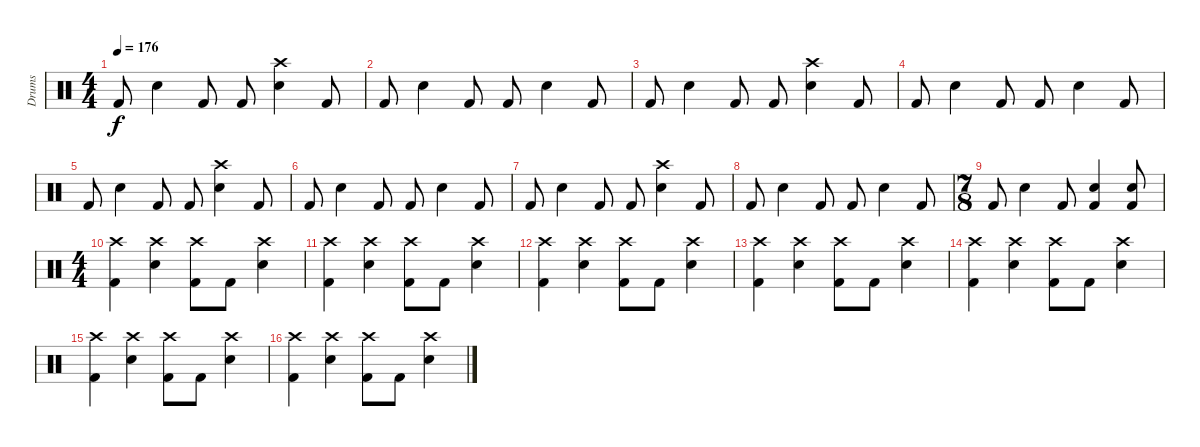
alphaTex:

\track ("Drums" "Drums") {instrument percussion}
\staff {score}
\articulation defaults
\ts (4 4)
\tempo 176
\clef neutral
\ks c "Kick (hit) 2".8{dy f} "Snare (hit) 2".4 "Kick (hit) 2".8 "Kick (hit) 2".8
("Snare (hit) 2" "Crash high (hit)").4 "Kick (hit) 2".8 |
"Kick (hit) 2".8 "Snare (hit) 2".4 "Kick (hit) 2".8 "Kick (hit) 2".8 "Snare (hit) 2".4 "Kick (hit) 2".8 |
"Kick (hit) 2".8 "Snare (hit) 2".4 "Kick (hit) 2".8 "Kick (hit) 2".8 ("Snare (hit) 2" "Crash high (hit)").4 "Kick (hit) 2".8 |
"Kick (hit) 2".8 "Snare (hit) 2".4 "Kick (hit) 2".8 "Kick (hit) 2".8 "Snare (hit) 2".4 "Kick (hit) 2".8 |
"Kick (hit) 2".8 "Snare (hit) 2".4 "Kick (hit) 2".8 "Kick (hit) 2".8 ("Snare (hit) 2" "Crash high (hit)").4 "Kick (hit) 2".8 |
"Kick (hit) 2".8 "Snare (hit) 2".4 "Kick (hit) 2".8 "Kick (hit) 2".8 "Snare (hit) 2".4 "Kick (hit) 2".8 |
"Kick (hit) 2".8 "Snare (hit) 2".4 "Kick (hit) 2".8 "Kick (hit) 2".8 ("Snare (hit) 2" "Crash high (hit)").4 "Kick (hit) 2".8 |
"Kick (hit) 2".8 "Snare (hit) 2".4 "Kick (hit) 2".8 "Kick (hit) 2".8 "Snare (hit) 2".4 "Kick (hit) 2".8 |
\ts (7 8)
"Kick (hit) 2".8 "Snare (hit) 2".4 "Kick (hit) 2".8 ("Snare (hit) 2" "Kick (hit) 2").4 ("Kick (hit) 2" "Snare (hit) 2").8 |
\ts (4 4)
("Crash high (hit)" "Kick (hit) 2").4 ("Crash high (hit)" "Snare (hit) 2").4 ("Crash high (hit)" "Kick (hit) 2").8 "Kick (hit) 2".8 ("Crash high (hit)" "Snare (hit) 2").4 |
("Crash high (hit)" "Kick (hit) 2").4 ("Crash high (hit)" "Snare (hit) 2").4 ("Crash high (hit)" "Kick (hit) 2").8 "Kick (hit) 2".8 ("Crash high (hit)" "Snare (hit) 2").4 |
("Crash high (hit)" "Kick (hit) 2").4 ("Crash high (hit)" "Snare (hit) 2").4 ("Crash high (hit)" "Kick (hit) 2").8 "Kick (hit) 2".8 ("Crash high (hit)" "Snare (hit) 2").4 |
("Crash high (hit)" "Kick (hit) 2").4 ("Crash high (hit)" "Snare (hit) 2").4 ("Crash high (hit)" "Kick (hit) 2").8 "Kick (hit) 2".8 ("Crash high (hit)" "Snare (hit) 2").4 |
("Crash high (hit)" "Kick (hit) 2").4 ("Crash high (hit)" "Snare (hit) 2").4 ("Crash high (hit)" "Kick (hit) 2").8 "Kick (hit) 2".8 ("Crash high (hit)" "Snare (hit) 2").4 |
("Crash high (hit)" "Kick (hit) 2").4 ("Crash high (hit)" "Snare (hit) 2").4 ("Crash high (hit)" "Kick (hit) 2").8 "Kick (hit) 2".8 ("Crash high (hit)" "Snare (hit) 2").4 |
("Crash high (hit)" "Kick (hit) 2").4 ("Crash high (hit)" "Snare (hit) 2").4 ("Crash high (hit)" "Kick (hit) 2").8 "Kick (hit) 2".8 ("Crash high (hit)" "Snare (hit) 2").4
